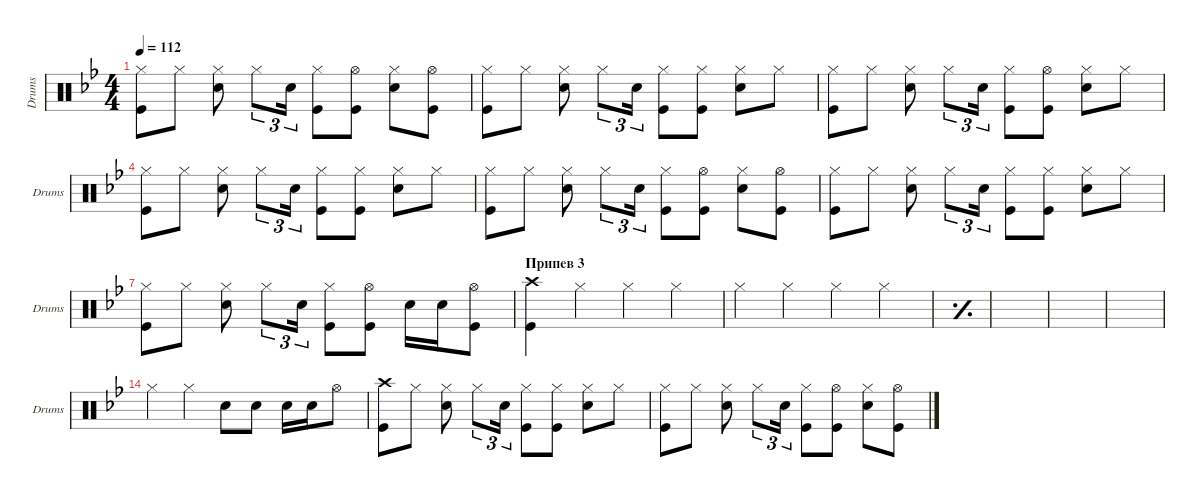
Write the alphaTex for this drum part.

\defaultSystemsLayout 4
\hideDynamics
\bracketExtendMode groupsimilarinstruments
\singleTrackTrackNamePolicy allsystems
\multiTrackTrackNamePolicy allsystems
\otherSystemsTrackNameOrientation horizontal
\defaultBarNumberDisplay FirstOfSystem
\track ("Drums" "Drums") {instrument percussion}
\staff {score}
\articulation defaults
\ts (4 4)
\tempo 112
\clef neutral
\ks gminor
("Kick (hit)" "Hi-Hat (closed)").8{dy mf} "Hi-Hat (closed)".8 ("Hi-Hat (closed)" "Snare (hit) 2").8 "Hi-Hat (closed)".8{tu (3 2)} "Snare (hit) 2".16{tu (3 2)} ("Hi-Hat (closed)" "Kick (hit)").8 ("Hi-Hat (open)" "Kick (hit)").8 ("Hi-Hat (closed)" "Snare (hit) 2").8 ("Hi-Hat (open)" "Kick (hit)").8 |
("Kick (hit)" "Hi-Hat (closed)").8 "Hi-Hat (closed)".8 ("Hi-Hat (closed)" "Snare (hit) 2").8 "Hi-Hat (closed)".8{tu (3 2)} "Snare (hit) 2".16{tu (3 2)} ("Hi-Hat (closed)" "Kick (hit)").8 ("Hi-Hat (closed)" "Kick (hit)").8 ("Hi-Hat (closed)" "Snare (hit) 2").8 "Hi-Hat (closed)".8 |
("Kick (hit)" "Hi-Hat (closed)").8 "Hi-Hat (closed)".8 ("Hi-Hat (closed)" "Snare (hit) 2").8 "Hi-Hat (closed)".8{tu (3 2)} "Snare (hit) 2".16{tu (3 2)} ("Hi-Hat (closed)" "Kick (hit)").8 ("Hi-Hat (open)" "Kick (hit)").8 ("Hi-Hat (closed)" "Snare (hit) 2").8 "Hi-Hat (closed)".8 |
("Kick (hit)" "Hi-Hat (closed)").8 "Hi-Hat (closed)".8 ("Hi-Hat (closed)" "Snare (hit) 2").8 "Hi-Hat (closed)".8{tu (3 2)} "Snare (hit) 2".16{tu (3 2)} ("Hi-Hat (closed)" "Kick (hit)").8 ("Hi-Hat (closed)" "Kick (hit)").8 ("Hi-Hat (closed)" "Snare (hit) 2").8 "Hi-Hat (closed)".8 |
("Kick (hit)" "Hi-Hat (closed)").8 "Hi-Hat (closed)".8 ("Hi-Hat (closed)" "Snare (hit) 2").8 "Hi-Hat (closed)".8{tu (3 2)} "Snare (hit) 2".16{tu (3 2)} ("Hi-Hat (closed)" "Kick (hit)").8 ("Hi-Hat (open)" "Kick (hit)").8 ("Hi-Hat (closed)" "Snare (hit) 2").8 ("Hi-Hat (open)" "Kick (hit)").8 |
("Kick (hit)" "Hi-Hat (closed)").8 "Hi-Hat (closed)".8 ("Hi-Hat (closed)" "Snare (hit) 2").8 "Hi-Hat (closed)".8{tu (3 2)} "Snare (hit) 2".16{tu (3 2)} ("Hi-Hat (closed)" "Kick (hit)").8 ("Hi-Hat (closed)" "Kick (hit)").8 ("Hi-Hat (closed)" "Snare (hit) 2").8 "Hi-Hat (closed)".8 |
("Kick (hit)" "Hi-Hat (closed)").8 "Hi-Hat (closed)".8 ("Hi-Hat (closed)" "Snare (hit) 2").8 "Hi-Hat (closed)".8{tu (3 2)} "Snare (hit) 2".16{tu (3 2)} ("Hi-Hat (closed)" "Kick (hit)").8 ("Hi-Hat (open)" "Kick (hit)").8 "Snare (hit) 2".16 "Snare (hit) 2".16 ("Hi-Hat (open)" "Kick (hit)").8 |
\section ("" "Припев 3")
("Kick (hit)" "Crash high (hit)").4 "Hi-Hat (closed)".4 "Hi-Hat (closed)".4 "Hi-Hat (closed)".4 |
"Hi-Hat (closed)".4 "Hi-Hat (closed)".4 "Hi-Hat (closed)".4 "Hi-Hat (closed)".4 |
\simile simple
|
|
|
|
\simile none "Hi-Hat (closed)".4 "Hi-Hat (closed)".4 "Snare (hit) 2".8 "Snare (hit) 2".8 "Snare (hit) 2".16 "Snare (hit) 2".16 "Hi-Hat (open)".8
|
("Kick (hit)" "Crash high (hit)").8 "Hi-Hat (closed)".8 ("Hi-Hat (closed)" "Snare (hit) 2").8 "Hi-Hat (closed)".8{tu (3 2)} "Snare (hit) 2".16{tu (3 2)} ("Hi-Hat (closed)" "Kick (hit)").8 ("Hi-Hat (closed)" "Kick (hit)").8 ("Hi-Hat (closed)" "Snare (hit) 2").8 "Hi-Hat (closed)".8 |
("Kick (hit)" "Hi-Hat (closed)").8 "Hi-Hat (closed)".8 ("Hi-Hat (closed)" "Snare (hit) 2").8 "Hi-Hat (closed)".8{tu (3 2)} "Snare (hit) 2".16{tu (3 2)} ("Hi-Hat (closed)" "Kick (hit)").8 ("Hi-Hat (open)" "Kick (hit)").8 ("Hi-Hat (closed)" "Snare (hit) 2").8 ("Hi-Hat (open)" "Kick (hit)").8
